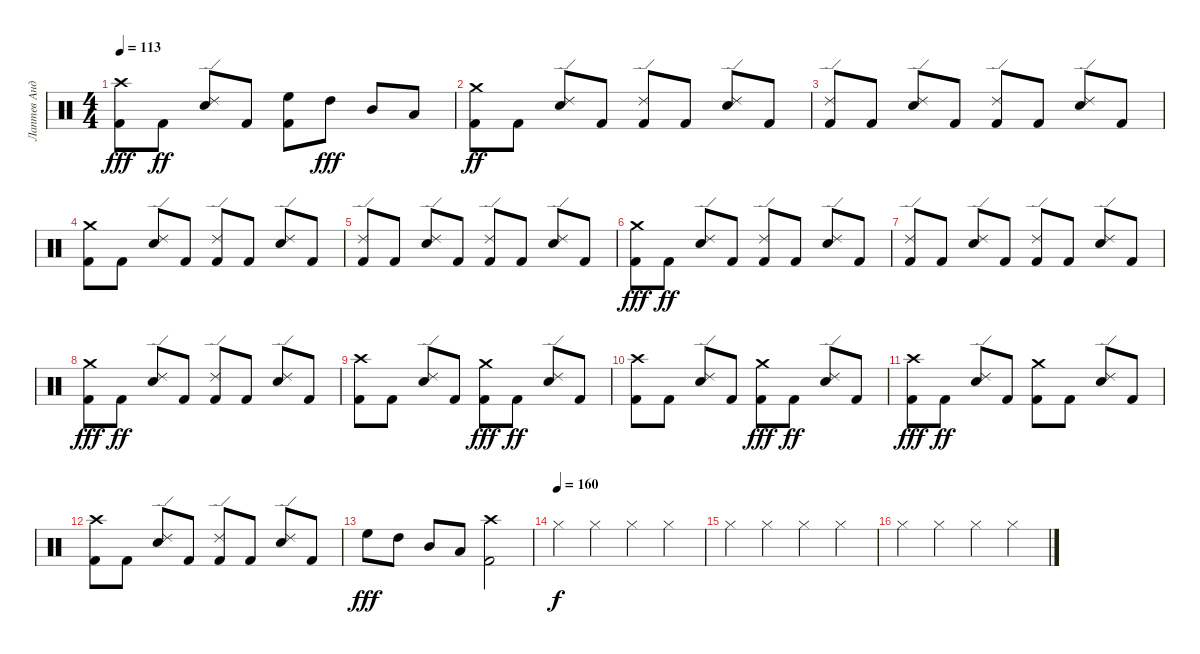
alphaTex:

\track ("Лаптев Андрей" "Лаптев Анд") {instrument percussion}
\staff {score}
\articulation defaults
\ts (4 4)
\tempo 113
\clef neutral
\ks c
("Kick (hit) 2" "Crash high (hit)").8{dy fff} "Kick (hit) 2".8{dy ff} ("Ride (edge) 2" "Electric Snare (hit)").8 "Kick (hit) 2".8 ("High Floor Tom (hit)" "Kick (hit) 2").8 "High Tom (hit)".8{dy fff} "Mid Tom (hit)".8 "Low Tom (hit)".8 |
("Crash medium (hit)" "Kick (hit) 2").8{dy ff} "Kick (hit) 2".8 ("Ride (edge) 2" "Electric Snare (hit)").8 "Kick (hit) 2".8 ("Kick (hit) 2" "Ride (edge) 2").8 "Kick (hit) 2".8 ("Ride (edge) 2" "Electric Snare (hit)").8 "Kick (hit) 2".8 |
("Ride (edge) 2" "Kick (hit) 2").8 "Kick (hit) 2".8 ("Electric Snare (hit)" "Ride (edge) 2").8 "Kick (hit) 2".8 ("Kick (hit) 2" "Ride (edge) 2").8 "Kick (hit) 2".8 ("Ride (edge) 2" "Electric Snare (hit)").8 "Kick (hit) 2".8 |
("Crash medium (hit)" "Kick (hit) 2").8 "Kick (hit) 2".8 ("Electric Snare (hit)" "Ride (edge) 2").8 "Kick (hit) 2".8 ("Ride (edge) 2" "Kick (hit) 2").8 "Kick (hit) 2".8 ("Ride (edge) 2" "Electric Snare (hit)").8 "Kick (hit) 2".8 |
("Kick (hit) 2" "Ride (edge) 2").8 "Kick (hit) 2".8 ("Ride (edge) 2" "Electric Snare (hit)").8 "Kick (hit) 2".8 ("Ride (edge) 2" "Kick (hit) 2").8 "Kick (hit) 2".8 ("Ride (edge) 2" "Electric Snare (hit)").8 "Kick (hit) 2".8 |
("Kick (hit) 2" "Crash medium (hit)").8{dy fff} "Kick (hit) 2".8{dy ff} ("Electric Snare (hit)" "Ride (edge) 2").8 "Kick (hit) 2".8 ("Kick (hit) 2" "Ride (edge) 2").8 "Kick (hit) 2".8 ("Ride (edge) 2" "Electric Snare (hit)").8 "Kick (hit) 2".8 |
("Ride (edge) 2" "Kick (hit) 2").8 "Kick (hit) 2".8 ("Electric Snare (hit)" "Ride (edge) 2").8 "Kick (hit) 2".8 ("Kick (hit) 2" "Ride (edge) 2").8 "Kick (hit) 2".8 ("Ride (edge) 2" "Electric Snare (hit)").8 "Kick (hit) 2".8 |
("Kick (hit) 2" "Crash medium (hit)").8{dy fff} "Kick (hit) 2".8{dy ff} ("Electric Snare (hit)" "Ride (edge) 2").8 "Kick (hit) 2".8 ("Kick (hit) 2" "Ride (edge) 2").8 "Kick (hit) 2".8 ("Ride (edge) 2" "Electric Snare (hit)").8 "Kick (hit) 2".8 |
("Crash high (hit)" "Kick (hit) 2").8 "Kick (hit) 2".8 ("Electric Snare (hit)" "Ride (edge) 2").8 "Kick (hit) 2".8 ("Kick (hit) 2" "Crash medium (hit)").8{dy fff} "Kick (hit) 2".8{dy ff} ("Electric Snare (hit)" "Ride (edge) 2").8 "Kick (hit) 2".8 |
("Crash high (hit)" "Kick (hit) 2").8 "Kick (hit) 2".8 ("Electric Snare (hit)" "Ride (edge) 2").8 "Kick (hit) 2".8 ("Kick (hit) 2" "Crash medium (hit)").8{dy fff} "Kick (hit) 2".8{dy ff} ("Electric Snare (hit)" "Ride (edge) 2").8 "Kick (hit) 2".8 |
("Kick (hit) 2" "Crash high (hit)").8{dy fff} "Kick (hit) 2".8{dy ff} ("Electric Snare (hit)" "Ride (edge) 2").8 "Kick (hit) 2".8 ("Crash medium (hit)" "Kick (hit) 2").8 "Kick (hit) 2".8 ("Ride (edge) 2" "Electric Snare (hit)").8 "Kick (hit) 2".8 |
("Crash high (hit)" "Kick (hit) 2").8 "Kick (hit) 2".8 ("Electric Snare (hit)" "Ride (edge) 2").8 "Kick (hit) 2".8 ("Ride (edge) 2" "Kick (hit) 2").8 "Kick (hit) 2".8 ("Electric Snare (hit)" "Ride (edge) 2").8 "Kick (hit) 2".8 |
"High Floor Tom (hit)".8{dy fff} "High Tom (hit)".8 "Mid Tom (hit)".8 "Low Tom (hit)".8 ("Kick (hit) 2" "Crash high (hit)").2 |
\tempo (160)
"Hi-Hat (closed)".4{dy f} "Hi-Hat (closed)".4 "Hi-Hat (closed)".4 "Hi-Hat (closed)".4 |
"Hi-Hat (closed)".4 "Hi-Hat (closed)".4 "Hi-Hat (closed)".4 "Hi-Hat (closed)".4 |
"Hi-Hat (closed)".4 "Hi-Hat (closed)".4 "Hi-Hat (closed)".4 "Hi-Hat (closed)".4
